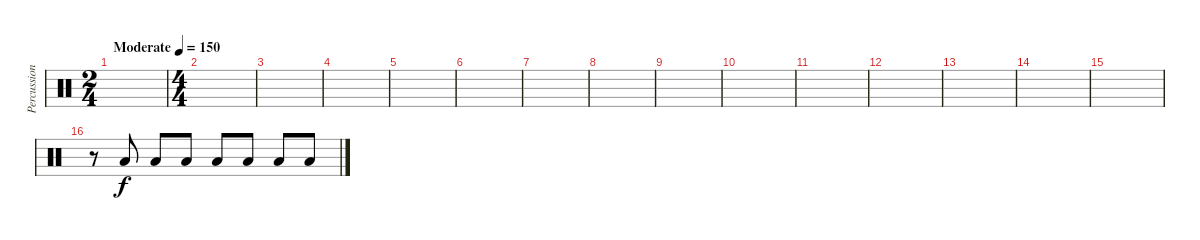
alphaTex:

\track ("Percussion" "Percussion") {instrument percussion}
\staff {score}
\articulation defaults
\ts (2 4)
\tempo (150 "Moderate")
\clef neutral
\ks c
|
\ts (4 4)
|
|
|
|
|
|
|
|
|
|
|
|
|
|
r.8 "Low Floor Tom (hit)".8 "Low Floor Tom (hit)".8 "Low Floor Tom (hit)".8 "Low Floor Tom (hit)".8 "Low Floor Tom (hit)".8 "Low Floor Tom (hit)".8 "Low Floor Tom (hit)".8
